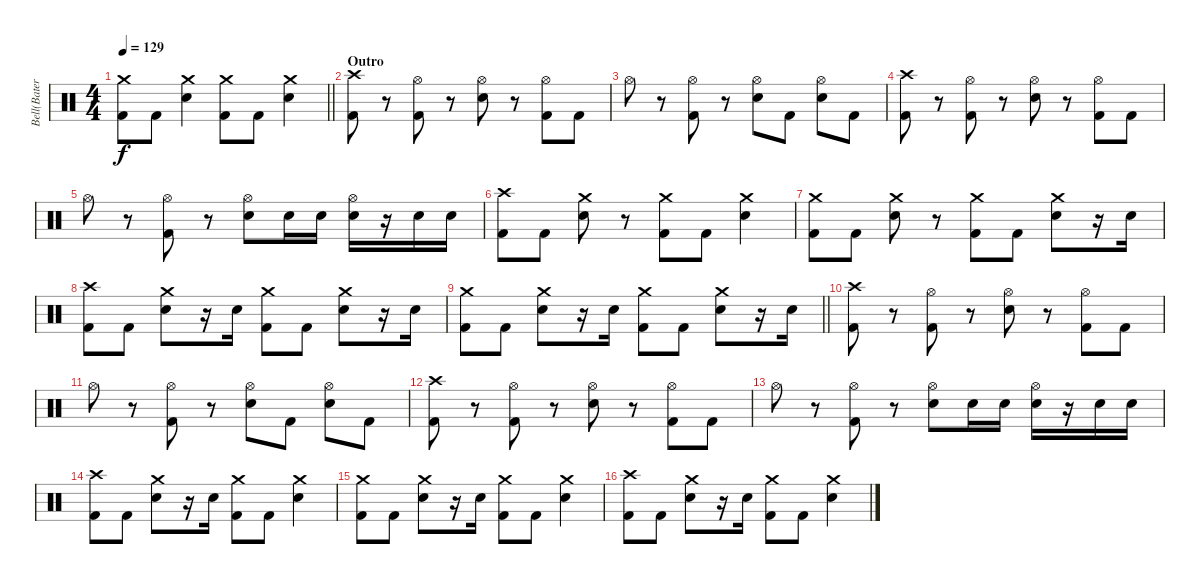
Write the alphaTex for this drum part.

\track ("Bell(Bateria)" "Bell(Bater") {instrument percussion}
\staff {score}
\articulation defaults
\ts (4 4)
\tempo 129
\clef neutral
\barLineRight lightlight
\ks c
("Crash medium (hit)" "Kick (hit) 2").8{dy f} "Kick (hit) 2".8 ("Crash medium (hit)" "Electric Snare (hit)").4 ("Crash medium (hit)" "Kick (hit) 2").8 "Kick (hit) 2".8 ("Crash medium (hit)" "Electric Snare (hit)").4 |
\section ("" "Outro")
("Crash high (hit)" "Kick (hit) 2").8 r.8 ("Hi-Hat (open)" "Kick (hit) 2").8 r.8 ("Hi-Hat (open)" "Electric Snare (hit)").8 r.8 ("Hi-Hat (open)" "Kick (hit) 2").8 "Kick (hit) 2".8 |
"Hi-Hat (open)".8 r.8 ("Hi-Hat (open)" "Kick (hit) 2").8 r.8 ("Hi-Hat (open)" "Electric Snare (hit)").8 "Kick (hit) 2".8 ("Hi-Hat (open)" "Electric Snare (hit)").8 "Kick (hit) 2".8 |
("Crash high (hit)" "Kick (hit) 2").8 r.8 ("Hi-Hat (open)" "Kick (hit) 2").8 r.8 ("Hi-Hat (open)" "Electric Snare (hit)").8 r.8 ("Hi-Hat (open)" "Kick (hit) 2").8 "Kick (hit) 2".8 |
"Hi-Hat (open)".8 r.8 ("Hi-Hat (open)" "Kick (hit) 2").8 r.8 ("Hi-Hat (open)" "Electric Snare (hit)").8 "Electric Snare (hit)".16 "Electric Snare (hit)".16 ("Hi-Hat (open)" "Electric Snare (hit)").16 r.16 "Electric Snare (hit)".16 "Electric Snare (hit)".16 |
("Crash high (hit)" "Kick (hit) 2").8 "Kick (hit) 2".8 ("Crash medium (hit)" "Electric Snare (hit)").8 r.8 ("Crash medium (hit)" "Kick (hit) 2").8 "Kick (hit) 2".8 ("Crash medium (hit)" "Electric Snare (hit)").4 |
("Crash medium (hit)" "Kick (hit) 2").8 "Kick (hit) 2".8 ("Crash medium (hit)" "Electric Snare (hit)").8 r.8 ("Crash medium (hit)" "Kick (hit) 2").8 "Kick (hit) 2".8 ("Crash medium (hit)" "Electric Snare (hit)").8 r.16 "Electric Snare (hit)".16 |
("Crash high (hit)" "Kick (hit) 2").8 "Kick (hit) 2".8 ("Crash medium (hit)" "Electric Snare (hit)").8 r.16 "Electric Snare (hit)".16 ("Crash medium (hit)" "Kick (hit) 2").8 "Kick (hit) 2".8 ("Crash medium (hit)" "Electric Snare (hit)").8 r.16 "Electric Snare (hit)".16 |
\barLineRight lightlight
("Crash medium (hit)" "Kick (hit) 2").8 "Kick (hit) 2".8 ("Crash medium (hit)" "Electric Snare (hit)").8 r.16 "Electric Snare (hit)".16 ("Crash medium (hit)" "Kick (hit) 2").8 "Kick (hit) 2".8 ("Crash medium (hit)" "Electric Snare (hit)").8 r.16 "Electric Snare (hit)".16 |
("Crash high (hit)" "Kick (hit) 2").8 r.8 ("Hi-Hat (open)" "Kick (hit) 2").8 r.8 ("Hi-Hat (open)" "Electric Snare (hit)").8 r.8 ("Hi-Hat (open)" "Kick (hit) 2").8 "Kick (hit) 2".8 |
"Hi-Hat (open)".8 r.8 ("Hi-Hat (open)" "Kick (hit) 2").8 r.8 ("Hi-Hat (open)" "Electric Snare (hit)").8 "Kick (hit) 2".8 ("Hi-Hat (open)" "Electric Snare (hit)").8 "Kick (hit) 2".8 |
("Crash high (hit)" "Kick (hit) 2").8 r.8 ("Hi-Hat (open)" "Kick (hit) 2").8 r.8 ("Hi-Hat (open)" "Electric Snare (hit)").8 r.8 ("Hi-Hat (open)" "Kick (hit) 2").8 "Kick (hit) 2".8 |
"Hi-Hat (open)".8 r.8 ("Hi-Hat (open)" "Kick (hit) 2").8 r.8 ("Hi-Hat (open)" "Electric Snare (hit)").8 "Electric Snare (hit)".16 "Electric Snare (hit)".16 ("Hi-Hat (open)" "Electric Snare (hit)").16 r.16 "Electric Snare (hit)".16 "Electric Snare (hit)".16 |
("Crash high (hit)" "Kick (hit) 2").8 "Kick (hit) 2".8 ("Crash medium (hit)" "Electric Snare (hit)").8 r.16 "Electric Snare (hit)".16 ("Crash medium (hit)" "Kick (hit) 2").8 "Kick (hit) 2".8 ("Crash medium (hit)" "Electric Snare (hit)").4 |
("Crash medium (hit)" "Kick (hit) 2").8 "Kick (hit) 2".8 ("Crash medium (hit)" "Electric Snare (hit)").8 r.16 "Electric Snare (hit)".16 ("Crash medium (hit)" "Kick (hit) 2").8 "Kick (hit) 2".8 ("Crash medium (hit)" "Electric Snare (hit)").4 |
("Crash high (hit)" "Kick (hit) 2").8 "Kick (hit) 2".8 ("Crash medium (hit)" "Electric Snare (hit)").8 r.16 "Electric Snare (hit)".16 ("Crash medium (hit)" "Kick (hit) 2").8 "Kick (hit) 2".8 ("Crash medium (hit)" "Electric Snare (hit)").4
